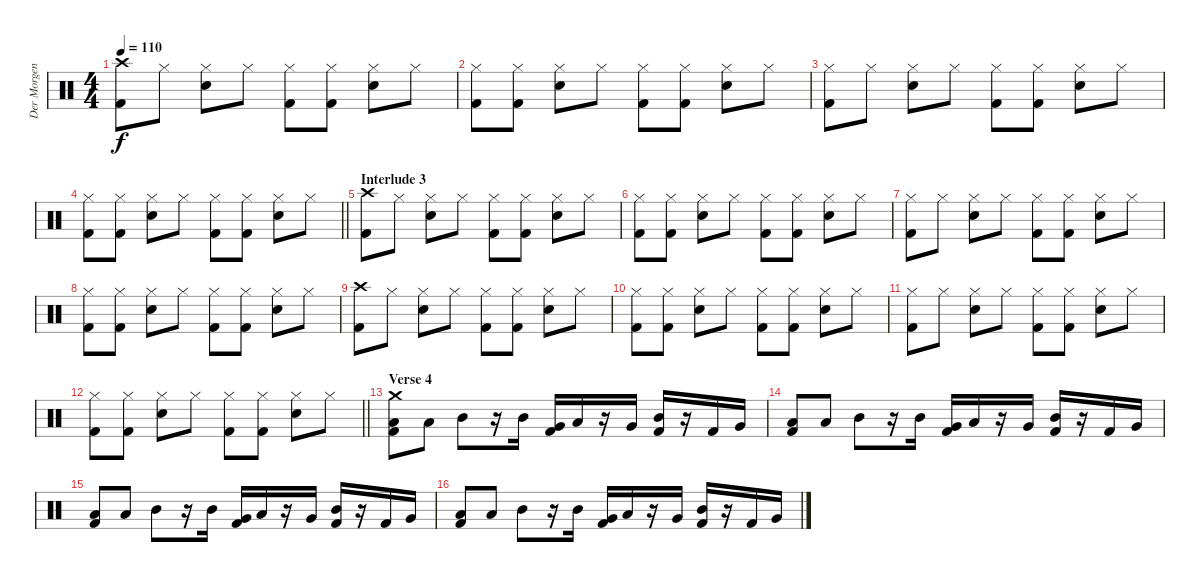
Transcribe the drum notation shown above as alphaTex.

\track ("Der Morgenstern" "Der Morgen") {instrument percussion}
\staff {score}
\articulation defaults
\ts (4 4)
\tempo 110
\clef neutral
\ks c
("Crash high (hit)" "Kick (hit) 2").8{dy f} "Hi-Hat (closed)".8 ("Hi-Hat (closed)" "Snare (hit) 2").8 "Hi-Hat (closed)".8 ("Hi-Hat (closed)" "Kick (hit) 2").8 ("Hi-Hat (closed)" "Kick (hit) 2").8 ("Hi-Hat (closed)" "Snare (hit) 2").8 "Hi-Hat (closed)".8 |
("Hi-Hat (closed)" "Kick (hit) 2").8 ("Hi-Hat (closed)" "Kick (hit) 2").8 ("Hi-Hat (closed)" "Snare (hit) 2").8 "Hi-Hat (closed)".8 ("Hi-Hat (closed)" "Kick (hit) 2").8 ("Hi-Hat (closed)" "Kick (hit) 2").8 ("Hi-Hat (closed)" "Snare (hit) 2").8 "Hi-Hat (closed)".8 |
("Hi-Hat (closed)" "Kick (hit) 2").8 "Hi-Hat (closed)".8 ("Hi-Hat (closed)" "Snare (hit) 2").8 "Hi-Hat (closed)".8 ("Hi-Hat (closed)" "Kick (hit) 2").8 ("Hi-Hat (closed)" "Kick (hit) 2").8 ("Hi-Hat (closed)" "Snare (hit) 2").8 "Hi-Hat (closed)".8 |
\barLineRight lightlight
("Hi-Hat (closed)" "Kick (hit) 2").8 ("Hi-Hat (closed)" "Kick (hit) 2").8 ("Hi-Hat (closed)" "Snare (hit) 2").8 "Hi-Hat (closed)".8 ("Hi-Hat (closed)" "Kick (hit) 2").8 ("Hi-Hat (closed)" "Kick (hit) 2").8 ("Hi-Hat (closed)" "Snare (hit) 2").8 "Hi-Hat (closed)".8 |
\section ("" "Interlude 3")
("Crash high (hit)" "Kick (hit) 2").8 "Hi-Hat (closed)".8 ("Hi-Hat (closed)" "Snare (hit) 2").8 "Hi-Hat (closed)".8 ("Hi-Hat (closed)" "Kick (hit) 2").8 ("Hi-Hat (closed)" "Kick (hit) 2").8 ("Hi-Hat (closed)" "Snare (hit) 2").8 "Hi-Hat (closed)".8 |
("Hi-Hat (closed)" "Kick (hit) 2").8 ("Hi-Hat (closed)" "Kick (hit) 2").8 ("Hi-Hat (closed)" "Snare (hit) 2").8 "Hi-Hat (closed)".8 ("Hi-Hat (closed)" "Kick (hit) 2").8 ("Hi-Hat (closed)" "Kick (hit) 2").8 ("Hi-Hat (closed)" "Snare (hit) 2").8 "Hi-Hat (closed)".8 |
("Hi-Hat (closed)" "Kick (hit) 2").8 "Hi-Hat (closed)".8 ("Hi-Hat (closed)" "Snare (hit) 2").8 "Hi-Hat (closed)".8 ("Hi-Hat (closed)" "Kick (hit) 2").8 ("Hi-Hat (closed)" "Kick (hit) 2").8 ("Hi-Hat (closed)" "Snare (hit) 2").8 "Hi-Hat (closed)".8 |
("Hi-Hat (closed)" "Kick (hit) 2").8 ("Hi-Hat (closed)" "Kick (hit) 2").8 ("Hi-Hat (closed)" "Snare (hit) 2").8 "Hi-Hat (closed)".8 ("Hi-Hat (closed)" "Kick (hit) 2").8 ("Hi-Hat (closed)" "Kick (hit) 2").8 ("Hi-Hat (closed)" "Snare (hit) 2").8 "Hi-Hat (closed)".8 |
("Crash high (hit)" "Kick (hit) 2").8 "Hi-Hat (closed)".8 ("Hi-Hat (closed)" "Snare (hit) 2").8 "Hi-Hat (closed)".8 ("Hi-Hat (closed)" "Kick (hit) 2").8 ("Hi-Hat (closed)" "Kick (hit) 2").8 ("Hi-Hat (closed)" "Snare (hit) 2").8 "Hi-Hat (closed)".8 |
("Hi-Hat (closed)" "Kick (hit) 2").8 ("Hi-Hat (closed)" "Kick (hit) 2").8 ("Hi-Hat (closed)" "Snare (hit) 2").8 "Hi-Hat (closed)".8 ("Hi-Hat (closed)" "Kick (hit) 2").8 ("Hi-Hat (closed)" "Kick (hit) 2").8 ("Hi-Hat (closed)" "Snare (hit) 2").8 "Hi-Hat (closed)".8 |
("Hi-Hat (closed)" "Kick (hit) 2").8 "Hi-Hat (closed)".8 ("Hi-Hat (closed)" "Snare (hit) 2").8 "Hi-Hat (closed)".8 ("Hi-Hat (closed)" "Kick (hit) 2").8 ("Hi-Hat (closed)" "Kick (hit) 2").8 ("Hi-Hat (closed)" "Snare (hit) 2").8 "Hi-Hat (closed)".8 |
\barLineRight lightlight
("Hi-Hat (closed)" "Kick (hit) 2").8 ("Hi-Hat (closed)" "Kick (hit) 2").8 ("Hi-Hat (closed)" "Snare (hit) 2").8 "Hi-Hat (closed)".8 ("Hi-Hat (closed)" "Kick (hit) 2").8 ("Hi-Hat (closed)" "Kick (hit) 2").8 ("Hi-Hat (closed)" "Snare (hit) 2").8 "Hi-Hat (closed)".8 |
\section ("" "Verse 4")
("Low Floor Tom (hit)" "Kick (hit) 2" "Crash medium (hit)").8 "Low Floor Tom (hit)".8 "Mid Tom (hit)".8 r.16 "Mid Tom (hit)".16 ("Very Low Tom (hit)" "Kick (hit) 2").16 "Low Tom (hit)".16 r.16 "Very Low Tom (hit)".16 ("Mid Tom (hit)" "Kick (hit) 2").16 r.16 "Kick (hit) 2".16 "Very Low Tom (hit)".16 |
("Low Floor Tom (hit)" "Kick (hit) 2").8 "Low Floor Tom (hit)".8 "Mid Tom (hit)".8 r.16 "Mid Tom (hit)".16 ("Very Low Tom (hit)" "Kick (hit) 2").16 "Low Tom (hit)".16 r.16 "Very Low Tom (hit)".16 ("Mid Tom (hit)" "Kick (hit) 2").16 r.16 "Kick (hit) 2".16 "Very Low Tom (hit)".16 |
("Low Floor Tom (hit)" "Kick (hit) 2").8 "Low Floor Tom (hit)".8 "Mid Tom (hit)".8 r.16 "Mid Tom (hit)".16 ("Very Low Tom (hit)" "Kick (hit) 2").16 "Low Tom (hit)".16 r.16 "Very Low Tom (hit)".16 ("Mid Tom (hit)" "Kick (hit) 2").16 r.16 "Kick (hit) 2".16 "Very Low Tom (hit)".16 |
("Low Floor Tom (hit)" "Kick (hit) 2").8 "Low Floor Tom (hit)".8 "Mid Tom (hit)".8 r.16 "Mid Tom (hit)".16 ("Very Low Tom (hit)" "Kick (hit) 2").16 "Low Tom (hit)".16 r.16 "Very Low Tom (hit)".16 ("Mid Tom (hit)" "Kick (hit) 2").16 r.16 "Kick (hit) 2".16 "Very Low Tom (hit)".16
